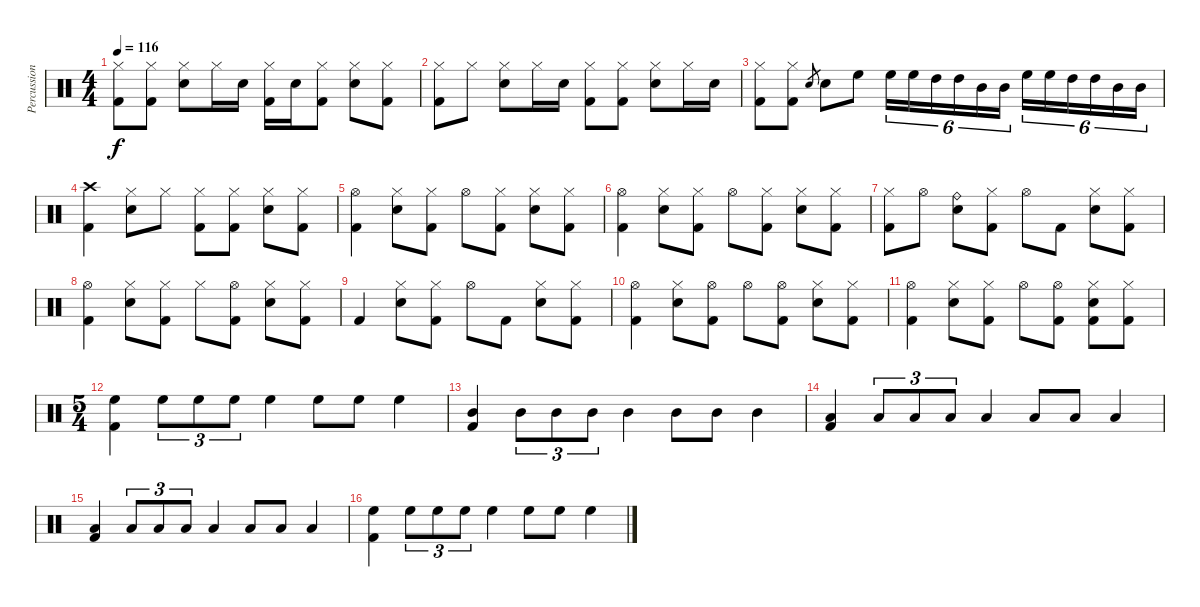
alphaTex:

\track ("Percussion" "Percussion") {instrument percussion}
\staff {score}
\articulation defaults
\ts (4 4)
\tempo 116
\clef neutral
\ks c
("Kick (hit) 2" "Hi-Hat (closed)").8{dy f} ("Kick (hit) 2" "Hi-Hat (closed)").8 ("Snare (hit) 2" "Hi-Hat (closed)").8 "Hi-Hat (closed)".16 "Snare (hit) 2".16 ("Kick (hit) 2" "Hi-Hat (closed)").16 "Snare (hit) 2".16 ("Kick (hit) 2" "Hi-Hat (closed)").8 ("Snare (hit) 2" "Hi-Hat (closed)").8 ("Kick (hit) 2" "Hi-Hat (closed)").8 |
("Kick (hit) 2" "Hi-Hat (closed)").8 "Hi-Hat (closed)".8 ("Snare (hit) 2" "Hi-Hat (closed)").8 "Hi-Hat (closed)".16 "Snare (hit) 2".16 ("Kick (hit) 2" "Hi-Hat (closed)").8 ("Kick (hit) 2" "Hi-Hat (closed)").8 ("Snare (hit) 2" "Hi-Hat (closed)").8 "Hi-Hat (closed)".16 "Snare (hit) 2".16 |
("Kick (hit) 2" "Hi-Hat (closed)").8 ("Kick (hit) 2" "Hi-Hat (closed)").8 "Snare (hit) 2".8{gr} "Snare (hit) 2".8 "High Floor Tom (hit)".8 "High Floor Tom (hit)".16{tu (6 4)} "High Floor Tom (hit)".16{tu (6 4)} "High Tom (hit)".16{tu (6 4)} "High Tom (hit)".16{tu (6 4)} "Mid Tom (hit)".16{tu (6 4)} "Mid Tom (hit)".16{tu (6 4)} "High Floor Tom (hit)".16{tu (6 4)} "High Floor Tom (hit)".16{tu (6 4)} "High Tom (hit)".16{tu (6 4)} "High Tom (hit)".16{tu (6 4)} "Mid Tom (hit)".16{tu (6 4)} "Mid Tom (hit)".16{tu (6 4)} |
("Kick (hit) 2" "Crash high (hit)").4 ("Snare (hit) 2" "Hi-Hat (closed)").8 "Hi-Hat (closed)".8 ("Kick (hit) 2" "Hi-Hat (closed)").8 ("Kick (hit) 2" "Hi-Hat (closed)").8 ("Snare (hit) 2" "Hi-Hat (closed)").8 ("Kick (hit) 2" "Hi-Hat (closed)").8 |
("Kick (hit) 2" "Hi-Hat (open)").4 ("Snare (hit) 2" "Hi-Hat (closed)").8 ("Kick (hit) 2" "Hi-Hat (closed)").8 "Hi-Hat (open)".8 ("Kick (hit) 2" "Hi-Hat (closed)").8 ("Snare (hit) 2" "Hi-Hat (closed)").8 ("Kick (hit) 2" "Hi-Hat (closed)").8 |
("Kick (hit) 2" "Hi-Hat (open)").4 ("Snare (hit) 2" "Hi-Hat (closed)").8 ("Kick (hit) 2" "Hi-Hat (closed)").8 "Hi-Hat (open)".8 ("Kick (hit) 2" "Hi-Hat (closed)").8 ("Snare (hit) 2" "Hi-Hat (closed)").8 ("Kick (hit) 2" "Hi-Hat (closed)").8 |
("Kick (hit) 2" "Hi-Hat (closed)").8 "Hi-Hat (open)".8 ("Snare (hit) 2" "Ride (bell)").8 ("Kick (hit) 2" "Hi-Hat (closed)").8 "Hi-Hat (open)".8 "Kick (hit) 2".8 ("Snare (hit) 2" "Hi-Hat (closed)").8 ("Kick (hit) 2" "Hi-Hat (closed)").8 |
("Kick (hit) 2" "Hi-Hat (open)").4 ("Snare (hit) 2" "Hi-Hat (closed)").8 ("Kick (hit) 2" "Hi-Hat (closed)").8 "Hi-Hat (closed)".8 ("Kick (hit) 2" "Hi-Hat (open)").8 ("Snare (hit) 2" "Hi-Hat (closed)").8 ("Kick (hit) 2" "Hi-Hat (closed)").8 |
"Kick (hit) 2".4 ("Snare (hit) 2" "Hi-Hat (closed)").8 ("Kick (hit) 2" "Hi-Hat (closed)").8 "Hi-Hat (open)".8 "Kick (hit) 2".8 ("Snare (hit) 2" "Hi-Hat (closed)").8 ("Kick (hit) 2" "Hi-Hat (closed)").8 |
("Kick (hit) 2" "Hi-Hat (open)").4 ("Snare (hit) 2" "Hi-Hat (closed)").8 ("Kick (hit) 2" "Hi-Hat (open)").8 "Hi-Hat (open)".8 ("Kick (hit) 2" "Hi-Hat (open)").8 ("Snare (hit) 2" "Hi-Hat (closed)").8 ("Kick (hit) 2" "Hi-Hat (closed)").8 |
("Kick (hit) 2" "Hi-Hat (open)").4 ("Snare (hit) 2" "Hi-Hat (closed)").8 ("Kick (hit) 2" "Hi-Hat (closed)").8 "Hi-Hat (open)".8 ("Kick (hit) 2" "Hi-Hat (open)").8 ("Kick (hit) 2" "Snare (hit) 2" "Hi-Hat (closed)").8 ("Kick (hit) 2" "Hi-Hat (closed)").8 |
\ts (5 4)
("Kick (hit) 2" "High Floor Tom (hit)").4 "High Floor Tom (hit)".8{tu (3 2)} "High Floor Tom (hit)".8{tu (3 2)} "High Floor Tom (hit)".8{tu (3 2)} "High Floor Tom (hit)".4 "High Floor Tom (hit)".8 "High Floor Tom (hit)".8 "High Floor Tom (hit)".4 |
("Kick (hit) 2" "Mid Tom (hit)").4 "Mid Tom (hit)".8{tu (3 2)} "Mid Tom (hit)".8{tu (3 2)} "Mid Tom (hit)".8{tu (3 2)} "Mid Tom (hit)".4 "Mid Tom (hit)".8 "Mid Tom (hit)".8 "Mid Tom (hit)".4 |
("Kick (hit) 2" "Low Tom (hit)").4 "Low Tom (hit)".8{tu (3 2)} "Low Tom (hit)".8{tu (3 2)} "Low Tom (hit)".8{tu (3 2)} "Low Tom (hit)".4 "Low Tom (hit)".8 "Low Tom (hit)".8 "Low Tom (hit)".4 |
("Kick (hit) 2" "Low Floor Tom (hit)").4 "Low Floor Tom (hit)".8{tu (3 2)} "Low Floor Tom (hit)".8{tu (3 2)} "Low Floor Tom (hit)".8{tu (3 2)} "Low Floor Tom (hit)".4 "Low Floor Tom (hit)".8 "Low Floor Tom (hit)".8 "Low Floor Tom (hit)".4 |
("Kick (hit) 2" "High Floor Tom (hit)").4 "High Floor Tom (hit)".8{tu (3 2)} "High Floor Tom (hit)".8{tu (3 2)} "High Floor Tom (hit)".8{tu (3 2)} "High Floor Tom (hit)".4 "High Floor Tom (hit)".8 "High Floor Tom (hit)".8 "High Floor Tom (hit)".4
